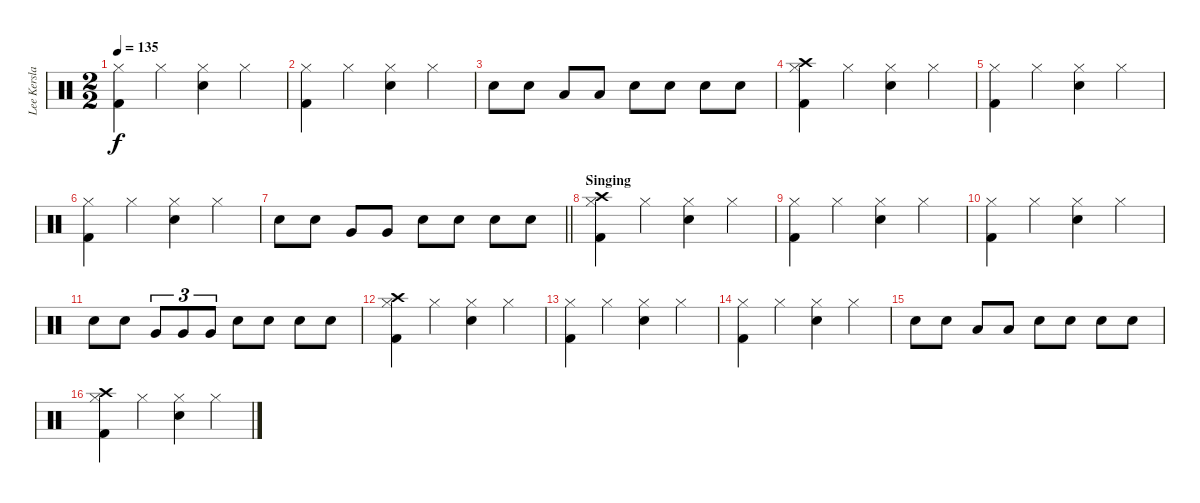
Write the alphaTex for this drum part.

\track ("Lee Kerslake" "Lee Kersla") {instrument percussion}
\staff {score}
\articulation defaults
\ts (2 2)
\tempo 135
\clef neutral
\ks c
("Kick (hit) 2" "Hi-Hat (closed)").4{dy f} "Hi-Hat (closed)".4 ("Snare (hit) 2" "Hi-Hat (closed)").4 "Hi-Hat (closed)".4 |
("Kick (hit) 2" "Hi-Hat (closed)").4 "Hi-Hat (closed)".4 ("Snare (hit) 2" "Hi-Hat (closed)").4 "Hi-Hat (closed)".4 |
"Snare (hit) 2".8 "Snare (hit) 2".8 "Low Floor Tom (hit)".8 "Low Floor Tom (hit)".8 "Electric Snare (hit)".8 "Electric Snare (hit)".8 "Snare (hit) 2".8 "Snare (hit) 2".8 |
("Kick (hit) 2" "Hi-Hat (closed)" "Crash high (hit)").4 "Hi-Hat (closed)".4 ("Snare (hit) 2" "Hi-Hat (closed)").4 "Hi-Hat (closed)".4 |
("Hi-Hat (closed)" "Kick (hit) 2").4 "Hi-Hat (closed)".4 ("Snare (hit) 2" "Hi-Hat (closed)").4 "Hi-Hat (closed)".4 |
("Kick (hit) 2" "Hi-Hat (closed)").4 "Hi-Hat (closed)".4 ("Snare (hit) 2" "Hi-Hat (closed)").4 "Hi-Hat (closed)".4 |
\barLineRight lightlight "Snare (hit) 2".8 "Snare (hit) 2".8 "Very Low Tom (hit)".8 "Very Low Tom (hit)".8 "Electric Snare (hit)".8 "Electric Snare (hit)".8 "Snare (hit) 2".8 "Snare (hit) 2".8
|
\section ("" "Singing")
("Kick (hit) 2" "Hi-Hat (closed)" "Crash high (hit)").4 "Hi-Hat (closed)".4 ("Snare (hit) 2" "Hi-Hat (closed)").4 "Hi-Hat (closed)".4 |
("Kick (hit) 2" "Hi-Hat (closed)").4 "Hi-Hat (closed)".4 ("Snare (hit) 2" "Hi-Hat (closed)").4 "Hi-Hat (closed)".4 |
("Kick (hit) 2" "Hi-Hat (closed)").4 "Hi-Hat (closed)".4 ("Snare (hit) 2" "Hi-Hat (closed)").4 "Hi-Hat (closed)".4 |
"Snare (hit) 2".8 "Snare (hit) 2".8 "Very Low Tom (hit)".8{tu (3 2)} "Very Low Tom (hit)".8{tu (3 2)} "Very Low Tom (hit)".8{tu (3 2)} "Electric Snare (hit)".8 "Electric Snare (hit)".8 "Snare (hit) 2".8 "Snare (hit) 2".8 |
("Kick (hit) 2" "Hi-Hat (closed)" "Crash high (hit)").4 "Hi-Hat (closed)".4 ("Snare (hit) 2" "Hi-Hat (closed)").4 "Hi-Hat (closed)".4 |
("Kick (hit) 2" "Hi-Hat (closed)").4 "Hi-Hat (closed)".4 ("Snare (hit) 2" "Hi-Hat (closed)").4 "Hi-Hat (closed)".4 |
("Kick (hit) 2" "Hi-Hat (closed)").4 "Hi-Hat (closed)".4 ("Snare (hit) 2" "Hi-Hat (closed)").4 "Hi-Hat (closed)".4 |
"Snare (hit) 2".8 "Snare (hit) 2".8 "Low Tom (hit)".8 "Low Tom (hit)".8 "Electric Snare (hit)".8 "Electric Snare (hit)".8 "Snare (hit) 2".8 "Snare (hit) 2".8 |
("Kick (hit) 2" "Hi-Hat (closed)" "Crash high (hit)").4 "Hi-Hat (closed)".4 ("Snare (hit) 2" "Hi-Hat (closed)").4 "Hi-Hat (closed)".4
